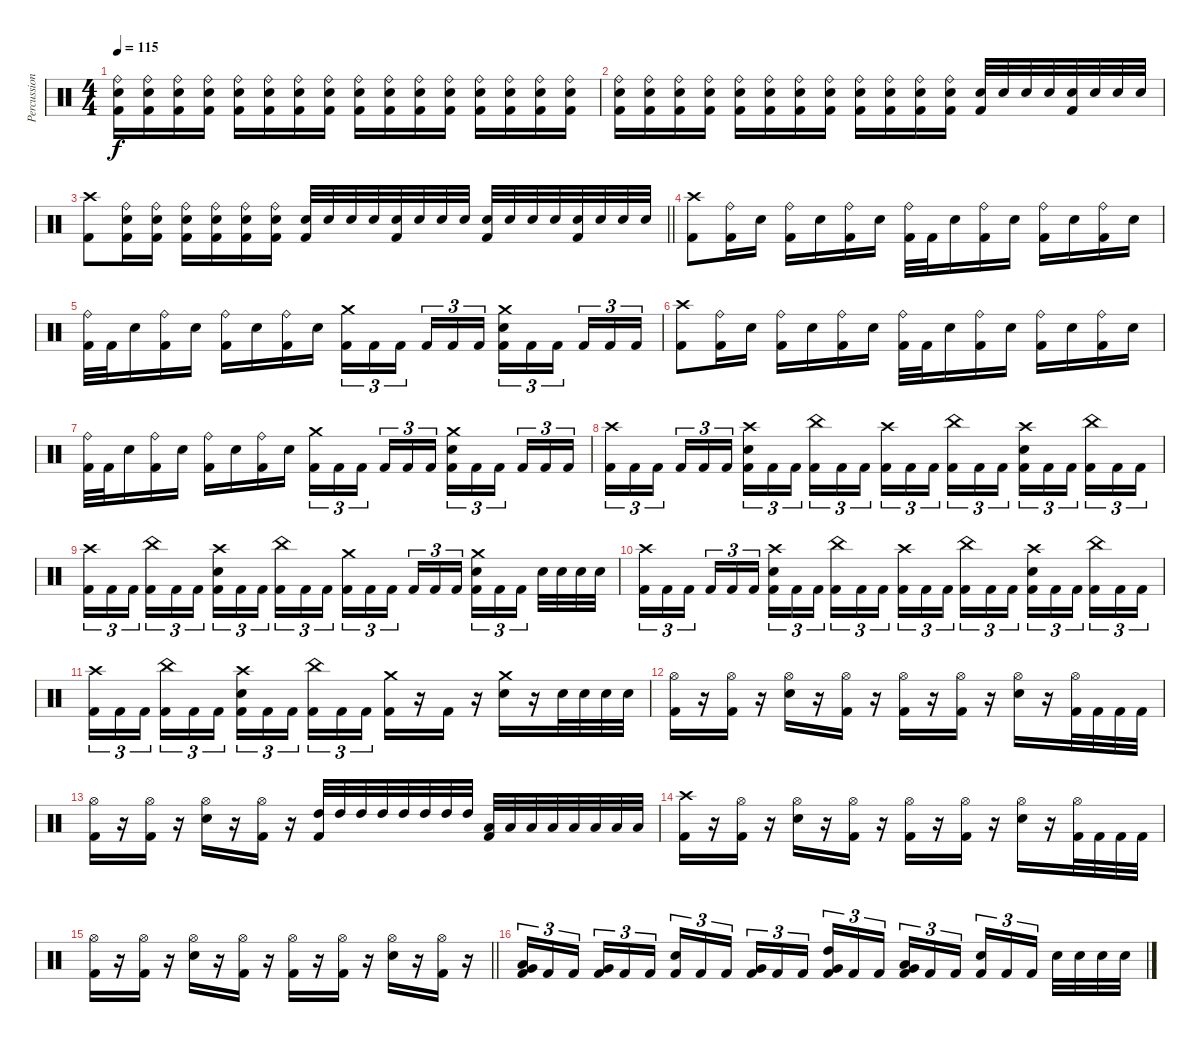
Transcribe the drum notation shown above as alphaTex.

\track ("Percussion" "Percussion") {instrument percussion}
\staff {score}
\articulation defaults
\ts (4 4)
\tempo 115
\clef neutral
\ks c
("Ride (bell)" "Snare (hit) 2" "Kick (hit) 2").16{dy f} ("Ride (bell)" "Snare (hit) 2" "Kick (hit) 2").16 ("Ride (bell)" "Snare (hit) 2" "Kick (hit) 2").16 ("Ride (bell)" "Snare (hit) 2" "Kick (hit) 2").16 ("Ride (bell)" "Snare (hit) 2" "Kick (hit) 2").16 ("Ride (bell)" "Snare (hit) 2" "Kick (hit) 2").16 ("Ride (bell)" "Snare (hit) 2" "Kick (hit) 2").16 ("Ride (bell)" "Snare (hit) 2" "Kick (hit) 2").16 ("Ride (bell)" "Snare (hit) 2" "Kick (hit) 2").16 ("Ride (bell)" "Snare (hit) 2" "Kick (hit) 2").16 ("Ride (bell)" "Snare (hit) 2" "Kick (hit) 2").16 ("Ride (bell)" "Snare (hit) 2" "Kick (hit) 2").16 ("Ride (bell)" "Snare (hit) 2" "Kick (hit) 2").16 ("Ride (bell)" "Snare (hit) 2" "Kick (hit) 2").16 ("Ride (bell)" "Snare (hit) 2" "Kick (hit) 2").16 ("Ride (bell)" "Snare (hit) 2" "Kick (hit) 2").16 |
("Ride (bell)" "Snare (hit) 2" "Kick (hit) 2").16 ("Ride (bell)" "Snare (hit) 2" "Kick (hit) 2").16 ("Ride (bell)" "Snare (hit) 2" "Kick (hit) 2").16 ("Ride (bell)" "Snare (hit) 2" "Kick (hit) 2").16 ("Ride (bell)" "Snare (hit) 2" "Kick (hit) 2").16 ("Ride (bell)" "Snare (hit) 2" "Kick (hit) 2").16 ("Ride (bell)" "Snare (hit) 2" "Kick (hit) 2").16 ("Ride (bell)" "Snare (hit) 2" "Kick (hit) 2").16 ("Ride (bell)" "Snare (hit) 2" "Kick (hit) 2").16 ("Ride (bell)" "Snare (hit) 2" "Kick (hit) 2").16 ("Ride (bell)" "Snare (hit) 2" "Kick (hit) 2").16 ("Ride (bell)" "Snare (hit) 2" "Kick (hit) 2").16 ("Snare (hit) 2" "Kick (hit) 2").32 "Snare (hit) 2".32 "Snare (hit) 2".32 "Snare (hit) 2".32 ("Snare (hit) 2" "Kick (hit) 2").32 "Snare (hit) 2".32 "Snare (hit) 2".32 "Snare (hit) 2".32 |
\barLineRight lightlight
("Crash high (hit)" "Kick (hit) 2").8 ("Ride (bell)" "Snare (hit) 2" "Kick (hit) 2").16 ("Ride (bell)" "Snare (hit) 2" "Kick (hit) 2").16 ("Ride (bell)" "Snare (hit) 2" "Kick (hit) 2").16 ("Ride (bell)" "Snare (hit) 2" "Kick (hit) 2").16 ("Ride (bell)" "Snare (hit) 2" "Kick (hit) 2").16 ("Ride (bell)" "Snare (hit) 2" "Kick (hit) 2").16 ("Snare (hit) 2" "Kick (hit) 2").32 "Snare (hit) 2".32 "Snare (hit) 2".32 "Snare (hit) 2".32 ("Snare (hit) 2" "Kick (hit) 2").32 "Snare (hit) 2".32 "Snare (hit) 2".32 "Snare (hit) 2".32 ("Snare (hit) 2" "Kick (hit) 2").32 "Snare (hit) 2".32 "Snare (hit) 2".32 "Snare (hit) 2".32 ("Snare (hit) 2" "Kick (hit) 2").32 "Snare (hit) 2".32 "Snare (hit) 2".32 "Snare (hit) 2".32 |
\section ("" "")
("Crash high (hit)" "Kick (hit) 2").8 ("Ride (bell)" "Kick (hit) 2").16 "Snare (hit) 2".16 ("Ride (bell)" "Kick (hit) 2").16 "Snare (hit) 2".16 ("Ride (bell)" "Kick (hit) 2").16 "Snare (hit) 2".16 ("Ride (bell)" "Kick (hit) 2").32 "Kick (hit) 2".32 "Snare (hit) 2".16 ("Ride (bell)" "Kick (hit) 2").16 "Snare (hit) 2".16 ("Ride (bell)" "Kick (hit) 2").16 "Snare (hit) 2".16 ("Ride (bell)" "Kick (hit) 2").16 "Snare (hit) 2".16 |
("Ride (bell)" "Kick (hit) 2").32 "Kick (hit) 2".32 "Snare (hit) 2".16 ("Ride (bell)" "Kick (hit) 2").16 "Snare (hit) 2".16 ("Ride (bell)" "Kick (hit) 2").16 "Snare (hit) 2".16 ("Ride (bell)" "Kick (hit) 2").16 "Snare (hit) 2".16 ("Crash medium (hit)" "Kick (hit) 2").16{tu (3 2)} "Kick (hit) 2".16{tu (3 2)} "Kick (hit) 2".16{tu (3 2) beam splitsecondary} "Kick (hit) 2".16{tu (3 2)} "Kick (hit) 2".16{tu (3 2)} "Kick (hit) 2".16{tu (3 2)} ("Crash medium (hit)" "Snare (hit) 2" "Kick (hit) 2").16{tu (3 2)} "Kick (hit) 2".16{tu (3 2)} "Kick (hit) 2".16{tu (3 2) beam splitsecondary} "Kick (hit) 2".16{tu (3 2)} "Kick (hit) 2".16{tu (3 2)} "Kick (hit) 2".16{tu (3 2)} |
("Crash high (hit)" "Kick (hit) 2").8 ("Ride (bell)" "Kick (hit) 2").16 "Snare (hit) 2".16 ("Ride (bell)" "Kick (hit) 2").16 "Snare (hit) 2".16 ("Ride (bell)" "Kick (hit) 2").16 "Snare (hit) 2".16 ("Ride (bell)" "Kick (hit) 2").32 "Kick (hit) 2".32 "Snare (hit) 2".16 ("Ride (bell)" "Kick (hit) 2").16 "Snare (hit) 2".16 ("Ride (bell)" "Kick (hit) 2").16 "Snare (hit) 2".16 ("Ride (bell)" "Kick (hit) 2").16 "Snare (hit) 2".16 |
("Ride (bell)" "Kick (hit) 2").32 "Kick (hit) 2".32 "Snare (hit) 2".16 ("Ride (bell)" "Kick (hit) 2").16 "Snare (hit) 2".16 ("Ride (bell)" "Kick (hit) 2").16 "Snare (hit) 2".16 ("Ride (bell)" "Kick (hit) 2").16 "Snare (hit) 2".16 ("Crash medium (hit)" "Kick (hit) 2").16{tu (3 2)} "Kick (hit) 2".16{tu (3 2)} "Kick (hit) 2".16{tu (3 2) beam splitsecondary} "Kick (hit) 2".16{tu (3 2)} "Kick (hit) 2".16{tu (3 2)} "Kick (hit) 2".16{tu (3 2)} ("Crash medium (hit)" "Snare (hit) 2" "Kick (hit) 2").16{tu (3 2)} "Kick (hit) 2".16{tu (3 2)} "Kick (hit) 2".16{tu (3 2) beam splitsecondary} "Kick (hit) 2".16{tu (3 2)} "Kick (hit) 2".16{tu (3 2)} "Kick (hit) 2".16{tu (3 2)} |
("Crash high (hit)" "Kick (hit) 2").16{tu (3 2)} "Kick (hit) 2".16{tu (3 2)} "Kick (hit) 2".16{tu (3 2) beam splitsecondary} "Kick (hit) 2".16{tu (3 2)} "Kick (hit) 2".16{tu (3 2)} "Kick (hit) 2".16{tu (3 2)} ("Crash high (hit)" "Snare (hit) 2" "Kick (hit) 2").16{tu (3 2)} "Kick (hit) 2".16{tu (3 2)} "Kick (hit) 2".16{tu (3 2) beam splitsecondary} ("China (hit)" "Kick (hit) 2").16{tu (3 2)} "Kick (hit) 2".16{tu (3 2)} "Kick (hit) 2".16{tu (3 2)} ("Crash high (hit)" "Kick (hit) 2").16{tu (3 2)} "Kick (hit) 2".16{tu (3 2)} "Kick (hit) 2".16{tu (3 2) beam splitsecondary} ("China (hit)" "Kick (hit) 2").16{tu (3 2)} "Kick (hit) 2".16{tu (3 2)} "Kick (hit) 2".16{tu (3 2)} ("Crash high (hit)" "Snare (hit) 2" "Kick (hit) 2").16{tu (3 2)} "Kick (hit) 2".16{tu (3 2)} "Kick (hit) 2".16{tu (3 2) beam splitsecondary} ("China (hit)" "Kick (hit) 2").16{tu (3 2)} "Kick (hit) 2".16{tu (3 2)} "Kick (hit) 2".16{tu (3 2)} |
("Crash high (hit)" "Kick (hit) 2").16{tu (3 2)} "Kick (hit) 2".16{tu (3 2)} "Kick (hit) 2".16{tu (3 2) beam splitsecondary} ("China (hit)" "Kick (hit) 2").16{tu (3 2)} "Kick (hit) 2".16{tu (3 2)} "Kick (hit) 2".16{tu (3 2)} ("Crash high (hit)" "Snare (hit) 2" "Kick (hit) 2").16{tu (3 2)} "Kick (hit) 2".16{tu (3 2)} "Kick (hit) 2".16{tu (3 2) beam splitsecondary} ("China (hit)" "Kick (hit) 2").16{tu (3 2)} "Kick (hit) 2".16{tu (3 2)} "Kick (hit) 2".16{tu (3 2)} ("Crash medium (hit)" "Kick (hit) 2").16{tu (3 2)} "Kick (hit) 2".16{tu (3 2)} "Kick (hit) 2".16{tu (3 2) beam splitsecondary} "Kick (hit) 2".16{tu (3 2)} "Kick (hit) 2".16{tu (3 2)} "Kick (hit) 2".16{tu (3 2)} ("Crash medium (hit)" "Snare (hit) 2" "Kick (hit) 2").16{tu (3 2)} "Kick (hit) 2".16{tu (3 2)} "Kick (hit) 2".16{tu (3 2) beam splitsecondary} "Snare (hit) 2".32 "Snare (hit) 2".32 "Snare (hit) 2".32 "Snare (hit) 2".32 |
("Crash high (hit)" "Kick (hit) 2").16{tu (3 2)} "Kick (hit) 2".16{tu (3 2)} "Kick (hit) 2".16{tu (3 2) beam splitsecondary} "Kick (hit) 2".16{tu (3 2)} "Kick (hit) 2".16{tu (3 2)} "Kick (hit) 2".16{tu (3 2)} ("Crash high (hit)" "Snare (hit) 2" "Kick (hit) 2").16{tu (3 2)} "Kick (hit) 2".16{tu (3 2)} "Kick (hit) 2".16{tu (3 2) beam splitsecondary} ("China (hit)" "Kick (hit) 2").16{tu (3 2)} "Kick (hit) 2".16{tu (3 2)} "Kick (hit) 2".16{tu (3 2)} ("Crash high (hit)" "Kick (hit) 2").16{tu (3 2)} "Kick (hit) 2".16{tu (3 2)} "Kick (hit) 2".16{tu (3 2) beam splitsecondary} ("China (hit)" "Kick (hit) 2").16{tu (3 2)} "Kick (hit) 2".16{tu (3 2)} "Kick (hit) 2".16{tu (3 2)} ("Crash high (hit)" "Snare (hit) 2" "Kick (hit) 2").16{tu (3 2)} "Kick (hit) 2".16{tu (3 2)} "Kick (hit) 2".16{tu (3 2) beam splitsecondary} ("China (hit)" "Kick (hit) 2").16{tu (3 2)} "Kick (hit) 2".16{tu (3 2)} "Kick (hit) 2".16{tu (3 2)} |
("Crash high (hit)" "Kick (hit) 2").16{tu (3 2)} "Kick (hit) 2".16{tu (3 2)} "Kick (hit) 2".16{tu (3 2) beam splitsecondary} ("China (hit)" "Kick (hit) 2").16{tu (3 2)} "Kick (hit) 2".16{tu (3 2)} "Kick (hit) 2".16{tu (3 2)} ("Crash high (hit)" "Snare (hit) 2" "Kick (hit) 2").16{tu (3 2)} "Kick (hit) 2".16{tu (3 2)} "Kick (hit) 2".16{tu (3 2) beam splitsecondary} ("China (hit)" "Kick (hit) 2").16{tu (3 2)} "Kick (hit) 2".16{tu (3 2)} "Kick (hit) 2".16{tu (3 2)} ("Crash medium (hit)" "Kick (hit) 2").16 r.16 "Kick (hit) 2".16 r.16 ("Crash medium (hit)" "Snare (hit) 2").16 r.16 "Snare (hit) 2".32 "Snare (hit) 2".32 "Snare (hit) 2".32 "Snare (hit) 2".32 |
("Hi-Hat (open)" "Kick (hit) 2").16 r.16 ("Hi-Hat (open)" "Kick (hit) 2").16 r.16 ("Hi-Hat (open)" "Snare (hit) 2").16 r.16 ("Hi-Hat (open)" "Kick (hit) 2").16 r.16 ("Hi-Hat (open)" "Kick (hit) 2").16 r.16 ("Hi-Hat (open)" "Kick (hit) 2").16 r.16 ("Hi-Hat (open)" "Snare (hit) 2").16 r.16 ("Hi-Hat (open)" "Kick (hit) 2").32 "Kick (hit) 2".32 "Kick (hit) 2".32 "Kick (hit) 2".32 |
("Hi-Hat (open)" "Kick (hit) 2").16 r.16 ("Hi-Hat (open)" "Kick (hit) 2").16 r.16 ("Hi-Hat (open)" "Snare (hit) 2").16 r.16 ("Hi-Hat (open)" "Kick (hit) 2").16 r.16 ("High Tom (hit)" "Kick (hit) 2").32 "High Tom (hit)".32 "High Tom (hit)".32 "High Tom (hit)".32 "High Tom (hit)".32 "High Tom (hit)".32 "High Tom (hit)".32 "High Tom (hit)".32 ("Low Tom (hit)" "Kick (hit) 2").32 "Low Tom (hit)".32 "Low Tom (hit)".32 "Low Tom (hit)".32 "Low Tom (hit)".32 "Low Tom (hit)".32 "Low Tom (hit)".32 "Low Tom (hit)".32 |
("Crash high (hit)" "Kick (hit) 2").16 r.16 ("Hi-Hat (open)" "Kick (hit) 2").16 r.16 ("Hi-Hat (open)" "Snare (hit) 2").16 r.16 ("Hi-Hat (open)" "Kick (hit) 2").16 r.16 ("Hi-Hat (open)" "Kick (hit) 2").16 r.16 ("Hi-Hat (open)" "Kick (hit) 2").16 r.16 ("Hi-Hat (open)" "Snare (hit) 2").16 r.16 ("Hi-Hat (open)" "Kick (hit) 2").32 "Kick (hit) 2".32 "Kick (hit) 2".32 "Kick (hit) 2".32 |
\barLineRight lightlight
("Hi-Hat (open)" "Kick (hit) 2").16 r.16 ("Hi-Hat (open)" "Kick (hit) 2").16 r.16 ("Hi-Hat (open)" "Snare (hit) 2").16 r.16 ("Hi-Hat (open)" "Kick (hit) 2").16 r.16 ("Hi-Hat (open)" "Kick (hit) 2").16 r.16 ("Hi-Hat (open)" "Kick (hit) 2").16 r.16 ("Hi-Hat (open)" "Snare (hit) 2").16 r.16 ("Hi-Hat (open)" "Kick (hit) 2").16 r.16 |
\section ("" "")
("Low Tom (hit)" "Very Low Tom (hit)" "Kick (hit) 2").16{tu (3 2)} "Kick (hit) 2".16{tu (3 2)} "Kick (hit) 2".16{tu (3 2) beam splitsecondary} ("Very Low Tom (hit)" "Kick (hit) 2").16{tu (3 2)} "Kick (hit) 2".16{tu (3 2)} "Kick (hit) 2".16{tu (3 2)} ("Snare (hit) 2" "Kick (hit) 2").16{tu (3 2)} "Kick (hit) 2".16{tu (3 2)} "Kick (hit) 2".16{tu (3 2) beam splitsecondary} ("Very Low Tom (hit)" "Kick (hit) 2").16{tu (3 2)} "Kick (hit) 2".16{tu (3 2)} "Kick (hit) 2".16{tu (3 2)} ("High Tom (hit)" "Very Low Tom (hit)" "Kick (hit) 2").16{tu (3 2)} "Kick (hit) 2".16{tu (3 2)} "Kick (hit) 2".16{tu (3 2) beam splitsecondary} ("Low Tom (hit)" "Very Low Tom (hit)" "Kick (hit) 2").16{tu (3 2)} "Kick (hit) 2".16{tu (3 2)} "Kick (hit) 2".16{tu (3 2)} ("Snare (hit) 2" "Kick (hit) 2").16{tu (3 2)} "Kick (hit) 2".16{tu (3 2)} "Kick (hit) 2".16{tu (3 2) beam splitsecondary} "Snare (hit) 2".32 "Snare (hit) 2".32 "Snare (hit) 2".32 "Snare (hit) 2".32
